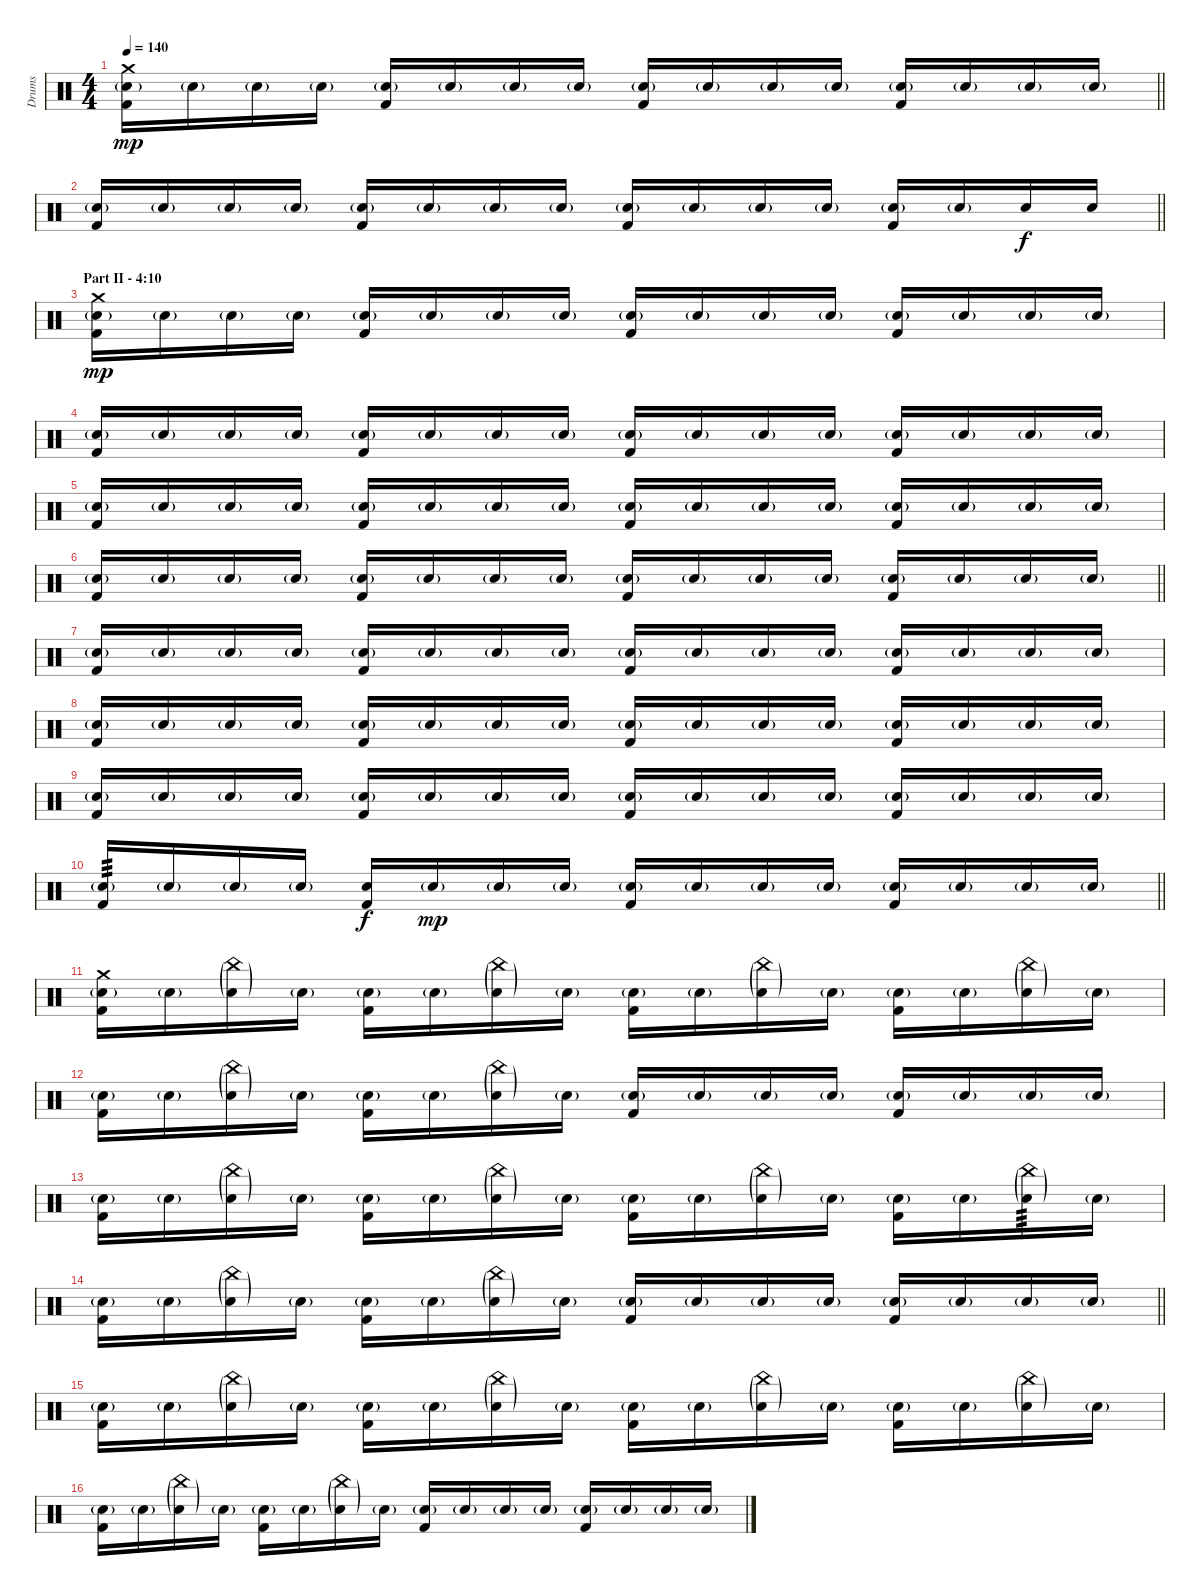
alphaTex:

\track ("Drums" "Drums") {instrument percussion}
\staff {score}
\articulation defaults
\ts (4 4)
\tempo 140
\clef neutral
\barLineRight lightlight
\ks c
("Kick (hit) 2" "Snare (hit) 2"{g} "Crash medium (hit)").16{dy mp} "Snare (hit) 2"{g}.16 "Snare (hit) 2"{g}.16 "Snare (hit) 2"{g}.16 ("Kick (hit) 2" "Snare (hit) 2"{g}).16 "Snare (hit) 2"{g}.16 "Snare (hit) 2"{g}.16 "Snare (hit) 2"{g}.16 ("Kick (hit) 2" "Snare (hit) 2"{g}).16 "Snare (hit) 2"{g}.16 "Snare (hit) 2"{g}.16 "Snare (hit) 2"{g}.16 ("Kick (hit) 2" "Snare (hit) 2"{g}).16 "Snare (hit) 2"{g}.16 "Snare (hit) 2"{g}.16 "Snare (hit) 2"{g}.16 |
\section ("" "")
\barLineRight lightlight
("Kick (hit) 2" "Snare (hit) 2"{g}).16 "Snare (hit) 2"{g}.16 "Snare (hit) 2"{g}.16 "Snare (hit) 2"{g}.16 ("Kick (hit) 2" "Snare (hit) 2"{g}).16 "Snare (hit) 2"{g}.16 "Snare (hit) 2"{g}.16 "Snare (hit) 2"{g}.16 ("Kick (hit) 2" "Snare (hit) 2"{g}).16 "Snare (hit) 2"{g}.16 "Snare (hit) 2"{g}.16 "Snare (hit) 2"{g}.16 ("Kick (hit) 2" "Snare (hit) 2"{g}).16 "Snare (hit) 2"{g}.16 "Snare (hit) 2".16{dy f} "Snare (hit) 2".16 |
\section ("" "Part II - 4:10")
("Kick (hit) 2" "Snare (hit) 2"{g} "Crash medium (hit)").16{dy mp} "Snare (hit) 2"{g}.16 "Snare (hit) 2"{g}.16 "Snare (hit) 2"{g}.16 ("Kick (hit) 2" "Snare (hit) 2"{g}).16 "Snare (hit) 2"{g}.16 "Snare (hit) 2"{g}.16 "Snare (hit) 2"{g}.16 ("Kick (hit) 2" "Snare (hit) 2"{g}).16 "Snare (hit) 2"{g}.16 "Snare (hit) 2"{g}.16 "Snare (hit) 2"{g}.16 ("Kick (hit) 2" "Snare (hit) 2"{g}).16 "Snare (hit) 2"{g}.16 "Snare (hit) 2"{g}.16 "Snare (hit) 2"{g}.16 |
("Kick (hit) 2" "Snare (hit) 2"{g}).16 "Snare (hit) 2"{g}.16 "Snare (hit) 2"{g}.16 "Snare (hit) 2"{g}.16 ("Kick (hit) 2" "Snare (hit) 2"{g}).16 "Snare (hit) 2"{g}.16 "Snare (hit) 2"{g}.16 "Snare (hit) 2"{g}.16 ("Kick (hit) 2" "Snare (hit) 2"{g}).16 "Snare (hit) 2"{g}.16 "Snare (hit) 2"{g}.16 "Snare (hit) 2"{g}.16 ("Kick (hit) 2" "Snare (hit) 2"{g}).16 "Snare (hit) 2"{g}.16 "Snare (hit) 2"{g}.16 "Snare (hit) 2"{g}.16 |
("Kick (hit) 2" "Snare (hit) 2"{g}).16 "Snare (hit) 2"{g}.16 "Snare (hit) 2"{g}.16 "Snare (hit) 2"{g}.16 ("Kick (hit) 2" "Snare (hit) 2"{g}).16 "Snare (hit) 2"{g}.16 "Snare (hit) 2"{g}.16 "Snare (hit) 2"{g}.16 ("Kick (hit) 2" "Snare (hit) 2"{g}).16 "Snare (hit) 2"{g}.16 "Snare (hit) 2"{g}.16 "Snare (hit) 2"{g}.16 ("Kick (hit) 2" "Snare (hit) 2"{g}).16 "Snare (hit) 2"{g}.16 "Snare (hit) 2"{g}.16 "Snare (hit) 2"{g}.16 |
\barLineRight lightlight
("Kick (hit) 2" "Snare (hit) 2"{g}).16 "Snare (hit) 2"{g}.16 "Snare (hit) 2"{g}.16 "Snare (hit) 2"{g}.16 ("Kick (hit) 2" "Snare (hit) 2"{g}).16 "Snare (hit) 2"{g}.16 "Snare (hit) 2"{g}.16 "Snare (hit) 2"{g}.16 ("Kick (hit) 2" "Snare (hit) 2"{g}).16 "Snare (hit) 2"{g}.16 "Snare (hit) 2"{g}.16 "Snare (hit) 2"{g}.16 ("Kick (hit) 2" "Snare (hit) 2"{g}).16 "Snare (hit) 2"{g}.16 "Snare (hit) 2"{g}.16 "Snare (hit) 2"{g}.16 |
\section ("" "")
("Kick (hit) 2" "Snare (hit) 2"{g}).16 "Snare (hit) 2"{g}.16 "Snare (hit) 2"{g}.16 "Snare (hit) 2"{g}.16 ("Kick (hit) 2" "Snare (hit) 2"{g}).16 "Snare (hit) 2"{g}.16 "Snare (hit) 2"{g}.16 "Snare (hit) 2"{g}.16 ("Kick (hit) 2" "Snare (hit) 2"{g}).16 "Snare (hit) 2"{g}.16 "Snare (hit) 2"{g}.16 "Snare (hit) 2"{g}.16 ("Kick (hit) 2" "Snare (hit) 2"{g}).16 "Snare (hit) 2"{g}.16 "Snare (hit) 2"{g}.16 "Snare (hit) 2"{g}.16 |
("Kick (hit) 2" "Snare (hit) 2"{g}).16 "Snare (hit) 2"{g}.16 "Snare (hit) 2"{g}.16 "Snare (hit) 2"{g}.16 ("Kick (hit) 2" "Snare (hit) 2"{g}).16 "Snare (hit) 2"{g}.16 "Snare (hit) 2"{g}.16 "Snare (hit) 2"{g}.16 ("Kick (hit) 2" "Snare (hit) 2"{g}).16 "Snare (hit) 2"{g}.16 "Snare (hit) 2"{g}.16 "Snare (hit) 2"{g}.16 ("Kick (hit) 2" "Snare (hit) 2"{g}).16 "Snare (hit) 2"{g}.16 "Snare (hit) 2"{g}.16 "Snare (hit) 2"{g}.16 |
("Kick (hit) 2" "Snare (hit) 2"{g}).16 "Snare (hit) 2"{g}.16 "Snare (hit) 2"{g}.16 "Snare (hit) 2"{g}.16 ("Kick (hit) 2" "Snare (hit) 2"{g}).16 "Snare (hit) 2"{g}.16 "Snare (hit) 2"{g}.16 "Snare (hit) 2"{g}.16 ("Kick (hit) 2" "Snare (hit) 2"{g}).16 "Snare (hit) 2"{g}.16 "Snare (hit) 2"{g}.16 "Snare (hit) 2"{g}.16 ("Kick (hit) 2" "Snare (hit) 2"{g}).16 "Snare (hit) 2"{g}.16 "Snare (hit) 2"{g}.16 "Snare (hit) 2"{g}.16 |
\barLineRight lightlight
("Kick (hit) 2" "Snare (hit) 2"{g}).16{tp 3} "Snare (hit) 2"{g}.16 "Snare (hit) 2"{g}.16 "Snare (hit) 2"{g}.16 ("Kick (hit) 2" "Snare (hit) 2").16{dy f} "Snare (hit) 2"{g}.16{dy mp} "Snare (hit) 2"{g}.16 "Snare (hit) 2"{g}.16 ("Kick (hit) 2" "Snare (hit) 2"{g}).16 "Snare (hit) 2"{g}.16 "Snare (hit) 2"{g}.16 "Snare (hit) 2"{g}.16 ("Kick (hit) 2" "Snare (hit) 2"{g}).16 "Snare (hit) 2"{g}.16 "Snare (hit) 2"{g}.16 "Snare (hit) 2"{g}.16 |
\section ("" "")
("Kick (hit) 2" "Snare (hit) 2"{g} "Crash medium (hit)").16 "Snare (hit) 2"{g}.16 ("Snare (hit) 2"{g} "China (hit)"{g}).16 "Snare (hit) 2"{g}.16 ("Kick (hit) 2" "Snare (hit) 2"{g}).16 "Snare (hit) 2"{g}.16 ("Snare (hit) 2"{g} "China (hit)"{g}).16 "Snare (hit) 2"{g}.16 ("Kick (hit) 2" "Snare (hit) 2"{g}).16 "Snare (hit) 2"{g}.16 ("Snare (hit) 2"{g} "China (hit)"{g}).16 "Snare (hit) 2"{g}.16 ("Kick (hit) 2" "Snare (hit) 2"{g}).16 "Snare (hit) 2"{g}.16 ("Snare (hit) 2"{g} "China (hit)"{g}).16 "Snare (hit) 2"{g}.16 |
("Kick (hit) 2" "Snare (hit) 2"{g}).16 "Snare (hit) 2"{g}.16 ("Snare (hit) 2"{g} "China (hit)"{g}).16 "Snare (hit) 2"{g}.16 ("Kick (hit) 2" "Snare (hit) 2"{g}).16 "Snare (hit) 2"{g}.16 ("Snare (hit) 2"{g} "China (hit)"{g}).16 "Snare (hit) 2"{g}.16 ("Kick (hit) 2" "Snare (hit) 2"{g}).16 "Snare (hit) 2"{g}.16 "Snare (hit) 2"{g}.16 "Snare (hit) 2"{g}.16 ("Kick (hit) 2" "Snare (hit) 2"{g}).16 "Snare (hit) 2"{g}.16 "Snare (hit) 2"{g}.16 "Snare (hit) 2"{g}.16 |
("Kick (hit) 2" "Snare (hit) 2"{g}).16 "Snare (hit) 2"{g}.16 ("Snare (hit) 2"{g} "China (hit)"{g}).16 "Snare (hit) 2"{g}.16 ("Kick (hit) 2" "Snare (hit) 2"{g}).16 "Snare (hit) 2"{g}.16 ("Snare (hit) 2"{g} "China (hit)"{g}).16 "Snare (hit) 2"{g}.16 ("Kick (hit) 2" "Snare (hit) 2"{g}).16 "Snare (hit) 2"{g}.16 ("Snare (hit) 2"{g} "China (hit)"{g}).16 "Snare (hit) 2"{g}.16 ("Kick (hit) 2" "Snare (hit) 2"{g}).16 "Snare (hit) 2"{g}.16 ("Snare (hit) 2"{g} "China (hit)"{g}).16{tp 3} "Snare (hit) 2"{g}.16 |
\barLineRight lightlight
("Kick (hit) 2" "Snare (hit) 2"{g}).16 "Snare (hit) 2"{g}.16 ("Snare (hit) 2"{g} "China (hit)"{g}).16 "Snare (hit) 2"{g}.16 ("Kick (hit) 2" "Snare (hit) 2"{g}).16 "Snare (hit) 2"{g}.16 ("Snare (hit) 2"{g} "China (hit)"{g}).16 "Snare (hit) 2"{g}.16 ("Kick (hit) 2" "Snare (hit) 2"{g}).16 "Snare (hit) 2"{g}.16 "Snare (hit) 2"{g}.16 "Snare (hit) 2"{g}.16 ("Kick (hit) 2" "Snare (hit) 2"{g}).16 "Snare (hit) 2"{g}.16 "Snare (hit) 2"{g}.16 "Snare (hit) 2"{g}.16 |
\section ("" "")
("Kick (hit) 2" "Snare (hit) 2"{g}).16 "Snare (hit) 2"{g}.16 ("Snare (hit) 2"{g} "China (hit)"{g}).16 "Snare (hit) 2"{g}.16 ("Kick (hit) 2" "Snare (hit) 2"{g}).16 "Snare (hit) 2"{g}.16 ("Snare (hit) 2"{g} "China (hit)"{g}).16 "Snare (hit) 2"{g}.16 ("Kick (hit) 2" "Snare (hit) 2"{g}).16 "Snare (hit) 2"{g}.16 ("Snare (hit) 2"{g} "China (hit)"{g}).16 "Snare (hit) 2"{g}.16 ("Kick (hit) 2" "Snare (hit) 2"{g}).16 "Snare (hit) 2"{g}.16 ("Snare (hit) 2"{g} "China (hit)"{g}).16 "Snare (hit) 2"{g}.16 |
("Kick (hit) 2" "Snare (hit) 2"{g}).16 "Snare (hit) 2"{g}.16 ("Snare (hit) 2"{g} "China (hit)"{g}).16 "Snare (hit) 2"{g}.16 ("Kick (hit) 2" "Snare (hit) 2"{g}).16 "Snare (hit) 2"{g}.16 ("Snare (hit) 2"{g} "China (hit)"{g}).16 "Snare (hit) 2"{g}.16 ("Kick (hit) 2" "Snare (hit) 2"{g}).16 "Snare (hit) 2"{g}.16 "Snare (hit) 2"{g}.16 "Snare (hit) 2"{g}.16 ("Kick (hit) 2" "Snare (hit) 2"{g}).16 "Snare (hit) 2"{g}.16 "Snare (hit) 2"{g}.16 "Snare (hit) 2"{g}.16
